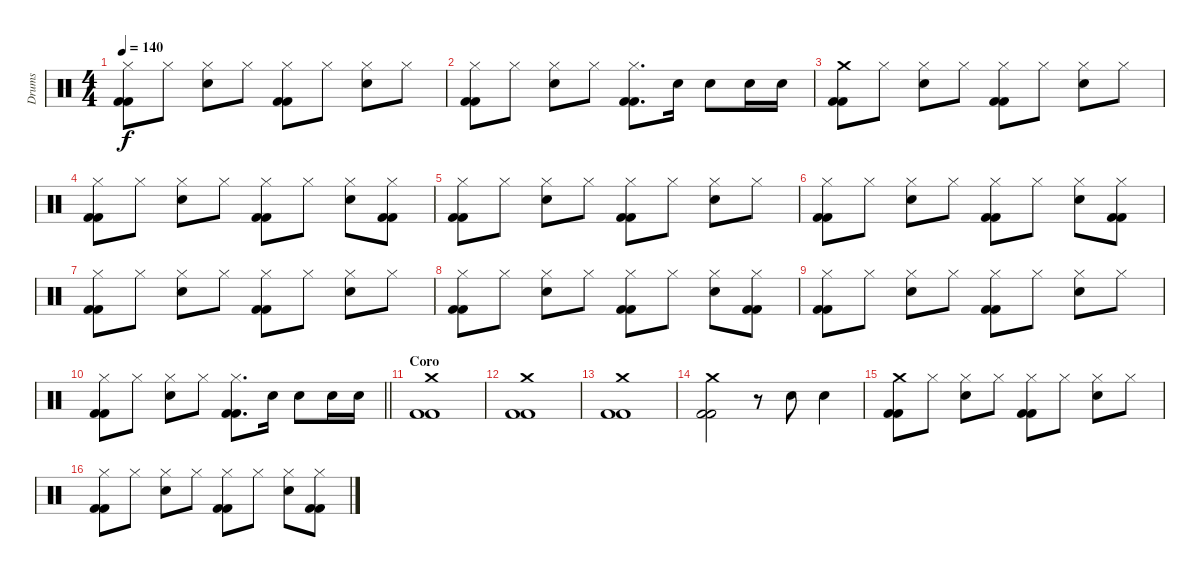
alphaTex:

\track ("Drums" "Drums") {instrument percussion}
\staff {score}
\articulation defaults
\ts (4 4)
\tempo 140
\clef neutral
\ks c
("Hi-Hat (closed)" "Kick (hit) 2" "Kick (hit) 2").8{dy f} "Hi-Hat (closed)".8 ("Hi-Hat (closed)" "Electric Snare (hit)").8 "Hi-Hat (closed)".8 ("Hi-Hat (closed)" "Kick (hit) 2" "Kick (hit) 2").8 "Hi-Hat (closed)".8 ("Hi-Hat (closed)" "Electric Snare (hit)").8 "Hi-Hat (closed)".8 |
("Hi-Hat (closed)" "Kick (hit) 2" "Kick (hit) 2").8 "Hi-Hat (closed)".8 ("Hi-Hat (closed)" "Electric Snare (hit)").8 "Hi-Hat (closed)".8 ("Hi-Hat (closed)" "Kick (hit) 2" "Kick (hit) 2").8{d} "Electric Snare (hit)".16 "Electric Snare (hit)".8 "Electric Snare (hit)".16 "Electric Snare (hit)".16 |
("Crash medium (hit)" "Kick (hit) 2" "Kick (hit) 2").8 "Hi-Hat (closed)".8 ("Hi-Hat (closed)" "Electric Snare (hit)").8 "Hi-Hat (closed)".8 ("Hi-Hat (closed)" "Kick (hit) 2" "Kick (hit) 2").8 "Hi-Hat (closed)".8 ("Hi-Hat (closed)" "Electric Snare (hit)").8 "Hi-Hat (closed)".8 |
("Hi-Hat (closed)" "Kick (hit) 2" "Kick (hit) 2").8 "Hi-Hat (closed)".8 ("Hi-Hat (closed)" "Electric Snare (hit)").8 "Hi-Hat (closed)".8 ("Hi-Hat (closed)" "Kick (hit) 2" "Kick (hit) 2").8 "Hi-Hat (closed)".8 ("Hi-Hat (closed)" "Electric Snare (hit)").8 ("Hi-Hat (closed)" "Kick (hit) 2" "Kick (hit) 2").8 |
("Hi-Hat (closed)" "Kick (hit) 2" "Kick (hit) 2").8 "Hi-Hat (closed)".8 ("Hi-Hat (closed)" "Electric Snare (hit)").8 "Hi-Hat (closed)".8 ("Hi-Hat (closed)" "Kick (hit) 2" "Kick (hit) 2").8 "Hi-Hat (closed)".8 ("Hi-Hat (closed)" "Electric Snare (hit)").8 "Hi-Hat (closed)".8 |
("Hi-Hat (closed)" "Kick (hit) 2" "Kick (hit) 2").8 "Hi-Hat (closed)".8 ("Hi-Hat (closed)" "Electric Snare (hit)").8 "Hi-Hat (closed)".8 ("Hi-Hat (closed)" "Kick (hit) 2" "Kick (hit) 2").8 "Hi-Hat (closed)".8 ("Hi-Hat (closed)" "Electric Snare (hit)").8 ("Hi-Hat (closed)" "Kick (hit) 2" "Kick (hit) 2").8 |
("Hi-Hat (closed)" "Kick (hit) 2" "Kick (hit) 2").8 "Hi-Hat (closed)".8 ("Hi-Hat (closed)" "Electric Snare (hit)").8 "Hi-Hat (closed)".8 ("Hi-Hat (closed)" "Kick (hit) 2" "Kick (hit) 2").8 "Hi-Hat (closed)".8 ("Hi-Hat (closed)" "Electric Snare (hit)").8 "Hi-Hat (closed)".8 |
("Hi-Hat (closed)" "Kick (hit) 2" "Kick (hit) 2").8 "Hi-Hat (closed)".8 ("Hi-Hat (closed)" "Electric Snare (hit)").8 "Hi-Hat (closed)".8 ("Hi-Hat (closed)" "Kick (hit) 2" "Kick (hit) 2").8 "Hi-Hat (closed)".8 ("Hi-Hat (closed)" "Electric Snare (hit)").8 ("Hi-Hat (closed)" "Kick (hit) 2" "Kick (hit) 2").8 |
("Hi-Hat (closed)" "Kick (hit) 2" "Kick (hit) 2").8 "Hi-Hat (closed)".8 ("Hi-Hat (closed)" "Electric Snare (hit)").8 "Hi-Hat (closed)".8 ("Hi-Hat (closed)" "Kick (hit) 2" "Kick (hit) 2").8 "Hi-Hat (closed)".8 ("Hi-Hat (closed)" "Electric Snare (hit)").8 "Hi-Hat (closed)".8 |
\barLineRight lightlight
("Hi-Hat (closed)" "Kick (hit) 2" "Kick (hit) 2").8 "Hi-Hat (closed)".8 ("Hi-Hat (closed)" "Electric Snare (hit)").8 "Hi-Hat (closed)".8 ("Hi-Hat (closed)" "Kick (hit) 2" "Kick (hit) 2").8{d} "Electric Snare (hit)".16 "Electric Snare (hit)".8 "Electric Snare (hit)".16 "Electric Snare (hit)".16 |
\section ("" "Coro")
("Crash medium (hit)" "Kick (hit) 2" "Kick (hit) 2").1 |
("Crash medium (hit)" "Kick (hit) 2" "Kick (hit) 2").1 |
("Crash medium (hit)" "Kick (hit) 2" "Kick (hit) 2").1 |
("Crash medium (hit)" "Kick (hit) 2" "Kick (hit) 2").2 r.8 "Electric Snare (hit)".8 "Electric Snare (hit)".4 |
("Crash medium (hit)" "Kick (hit) 2" "Kick (hit) 2").8 "Hi-Hat (closed)".8 ("Hi-Hat (closed)" "Electric Snare (hit)").8 "Hi-Hat (closed)".8 ("Hi-Hat (closed)" "Kick (hit) 2" "Kick (hit) 2").8 "Hi-Hat (closed)".8 ("Hi-Hat (closed)" "Electric Snare (hit)").8 "Hi-Hat (closed)".8 |
("Hi-Hat (closed)" "Kick (hit) 2" "Kick (hit) 2").8 "Hi-Hat (closed)".8 ("Hi-Hat (closed)" "Electric Snare (hit)").8 "Hi-Hat (closed)".8 ("Hi-Hat (closed)" "Kick (hit) 2" "Kick (hit) 2").8 "Hi-Hat (closed)".8 ("Hi-Hat (closed)" "Electric Snare (hit)").8 ("Hi-Hat (closed)" "Kick (hit) 2" "Kick (hit) 2").8
